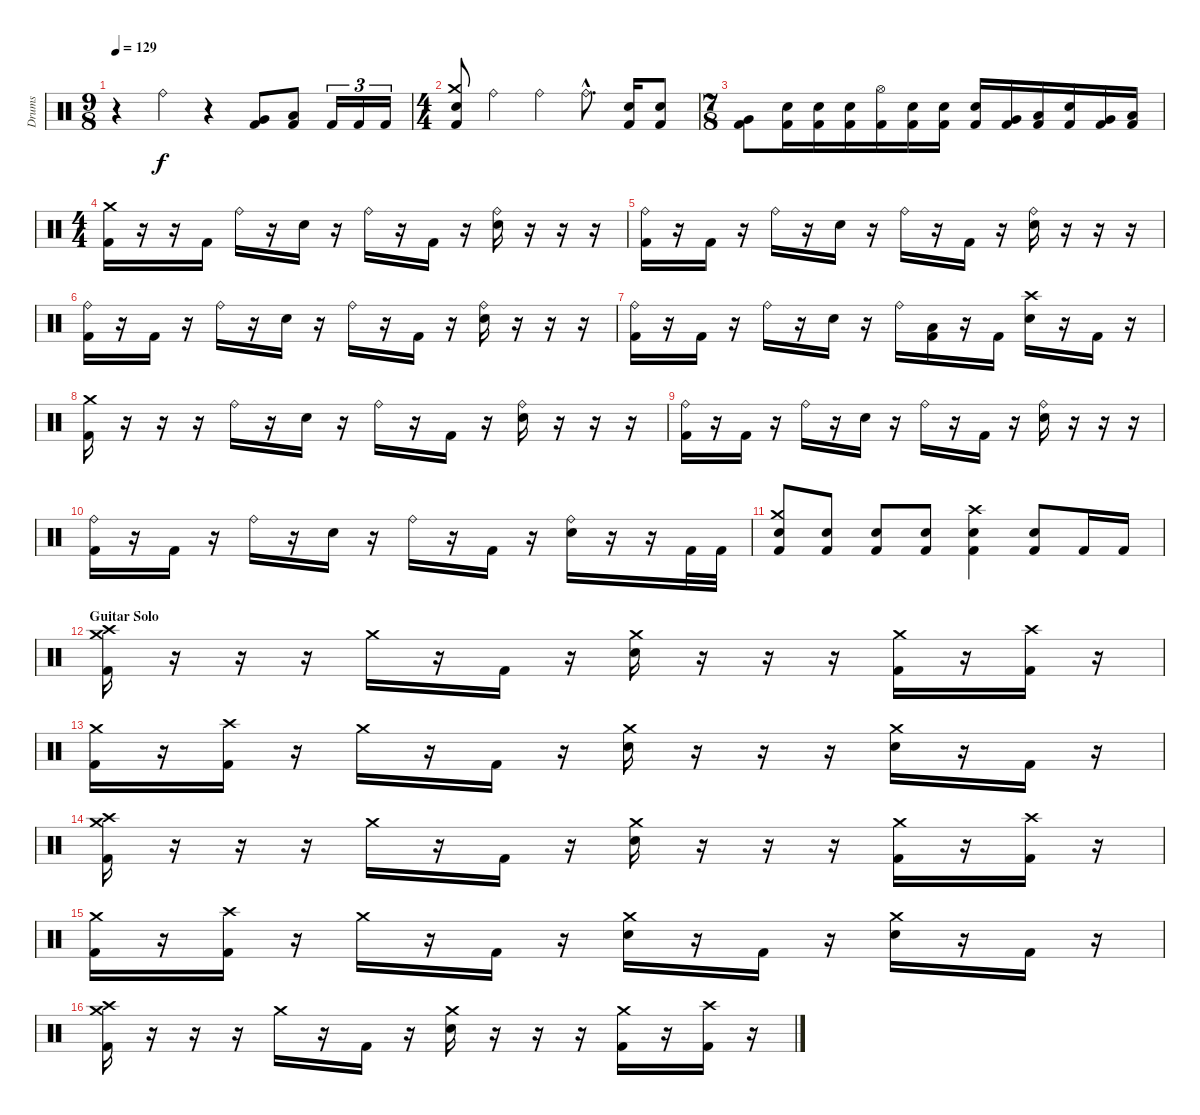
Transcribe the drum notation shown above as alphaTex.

\track ("Drums" "Drums") {instrument percussion}
\staff {score}
\articulation defaults
\ts (9 8)
\tempo 129
\clef neutral
\ks c
r.4{dy f} "Ride (bell)".4 r.4 ("Very Low Tom (hit)" "Kick (hit) 2").8 ("Low Floor Tom (hit)" "Kick (hit) 2").8 "Kick (hit) 2".16{tu (3 2)} "Kick (hit) 2".16{tu (3 2)} "Kick (hit) 2".16{tu (3 2)} |
\ts (4 4)
("Crash medium (hit)" "Electric Snare (hit)" "Kick (hit) 2").8 "Ride (bell)".4 "Ride (bell)".4 "Ride (bell)"{hac}.8{d} ("Electric Snare (hit)" "Kick (hit) 2").16 ("Electric Snare (hit)" "Kick (hit) 2").8 |
\ts (7 8)
("Very Low Tom (hit)" "Kick (hit) 2").8 ("Electric Snare (hit)" "Kick (hit) 2").16 ("Electric Snare (hit)" "Kick (hit) 2").16 ("Electric Snare (hit)" "Kick (hit) 2").16 ("Hi-Hat (open)" "Kick (hit) 2").16 ("Electric Snare (hit)" "Kick (hit) 2").16 ("Electric Snare (hit)" "Kick (hit) 2").16 ("Electric Snare (hit)" "Kick (hit) 2").16 ("Very Low Tom (hit)" "Kick (hit) 2").16 ("Low Floor Tom (hit)" "Kick (hit) 2").16 ("Electric Snare (hit)" "Kick (hit) 2").16 ("Very Low Tom (hit)" "Kick (hit) 2").16 ("Low Floor Tom (hit)" "Kick (hit) 2").16 |
\ts (4 4)
\section ("" "")
("Crash medium (hit)" "Kick (hit) 2").16 r.16 r.16 "Kick (hit) 2".16 "Ride (bell)".16 r.16 "Electric Snare (hit)".16 r.16 "Ride (bell)".16 r.16 "Kick (hit) 2".16 r.16 ("Ride (bell)" "Electric Snare (hit)").16 r.16 r.16 r.16 |
("Ride (bell)" "Kick (hit) 2").16 r.16 "Kick (hit) 2".16 r.16 "Ride (bell)".16 r.16 "Electric Snare (hit)".16 r.16 "Ride (bell)".16 r.16 "Kick (hit) 2".16 r.16 ("Ride (bell)" "Electric Snare (hit)").16 r.16 r.16 r.16 |
("Ride (bell)" "Kick (hit) 2").16 r.16 "Kick (hit) 2".16 r.16 "Ride (bell)".16 r.16 "Electric Snare (hit)".16 r.16 "Ride (bell)".16 r.16 "Kick (hit) 2".16 r.16 ("Ride (bell)" "Electric Snare (hit)").16 r.16 r.16 r.16 |
("Ride (bell)" "Kick (hit) 2").16 r.16 "Kick (hit) 2".16 r.16 "Ride (bell)".16 r.16 "Electric Snare (hit)".16 r.16 "Ride (bell)".16 ("Low Tom (hit)" "Kick (hit) 2").16 r.16 "Kick (hit) 2".16 ("Crash high (hit)" "Electric Snare (hit)").16 r.16 "Kick (hit) 2".16 r.16 |
("Crash medium (hit)" "Kick (hit) 2").16 r.16 r.16 r.16 "Ride (bell)".16 r.16 "Electric Snare (hit)".16 r.16 "Ride (bell)".16 r.16 "Kick (hit) 2".16 r.16 ("Ride (bell)" "Electric Snare (hit)").16 r.16 r.16 r.16 |
("Ride (bell)" "Kick (hit) 2").16 r.16 "Kick (hit) 2".16 r.16 "Ride (bell)".16 r.16 "Electric Snare (hit)".16 r.16 "Ride (bell)".16 r.16 "Kick (hit) 2".16 r.16 ("Ride (bell)" "Electric Snare (hit)").16 r.16 r.16 r.16 |
("Ride (bell)" "Kick (hit) 2").16 r.16 "Kick (hit) 2".16 r.16 "Ride (bell)".16 r.16 "Electric Snare (hit)".16 r.16 "Ride (bell)".16 r.16 "Kick (hit) 2".16 r.16 ("Ride (bell)" "Electric Snare (hit)").16 r.16 r.16 "Kick (hit) 2".32 "Kick (hit) 2".32 |
("Crash medium (hit)" "Electric Snare (hit)" "Kick (hit) 2").8 ("Electric Snare (hit)" "Kick (hit) 2").8 ("Electric Snare (hit)" "Kick (hit) 2").8 ("Electric Snare (hit)" "Kick (hit) 2").8 ("Crash high (hit)" "Electric Snare (hit)" "Kick (hit) 2").4 ("Electric Snare (hit)" "Kick (hit) 2").8 "Kick (hit) 2".16 "Kick (hit) 2".16 |
\section ("" "Guitar Solo")
("Crash medium (hit)" "Crash high (hit)" "Kick (hit) 2").16 r.16 r.16 r.16 "Crash medium (hit)".16 r.16 "Kick (hit) 2".16 r.16 ("Crash medium (hit)" "Electric Snare (hit)").16 r.16 r.16 r.16 ("Crash medium (hit)" "Kick (hit) 2").16 r.16 ("Crash high (hit)" "Kick (hit) 2").16 r.16 |
("Crash medium (hit)" "Kick (hit) 2").16 r.16 ("Crash high (hit)" "Kick (hit) 2").16 r.16 "Crash medium (hit)".16 r.16 "Kick (hit) 2".16 r.16 ("Crash medium (hit)" "Electric Snare (hit)").16 r.16 r.16 r.16 ("Crash medium (hit)" "Electric Snare (hit)").16 r.16 "Kick (hit) 2".16 r.16 |
("Crash medium (hit)" "Crash high (hit)" "Kick (hit) 2").16 r.16 r.16 r.16 "Crash medium (hit)".16 r.16 "Kick (hit) 2".16 r.16 ("Crash medium (hit)" "Electric Snare (hit)").16 r.16 r.16 r.16 ("Crash medium (hit)" "Kick (hit) 2").16 r.16 ("Crash high (hit)" "Kick (hit) 2").16 r.16 |
("Crash medium (hit)" "Kick (hit) 2").16 r.16 ("Crash high (hit)" "Kick (hit) 2").16 r.16 "Crash medium (hit)".16 r.16 "Kick (hit) 2".16 r.16 ("Crash medium (hit)" "Electric Snare (hit)").16 r.16 "Kick (hit) 2".16 r.16 ("Crash medium (hit)" "Electric Snare (hit)").16 r.16 "Kick (hit) 2".16 r.16 |
("Crash medium (hit)" "Crash high (hit)" "Kick (hit) 2").16 r.16 r.16 r.16 "Crash medium (hit)".16 r.16 "Kick (hit) 2".16 r.16 ("Crash medium (hit)" "Electric Snare (hit)").16 r.16 r.16 r.16 ("Crash medium (hit)" "Kick (hit) 2").16 r.16 ("Crash high (hit)" "Kick (hit) 2").16 r.16
